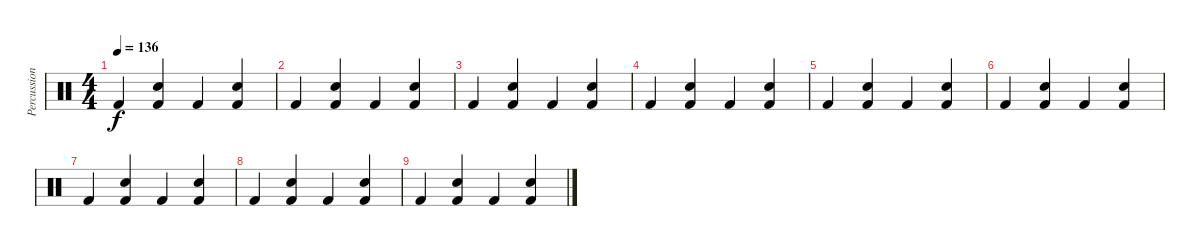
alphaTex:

\track ("Percussion" "Percussion") {instrument percussion}
\staff {score}
\articulation defaults
\ts (4 4)
\tempo 136
\clef neutral
\ks c "Kick (hit) 2".4{dy f}
("Kick (hit) 2" "Snare (hit) 2").4 "Kick (hit) 2".4 ("Kick (hit) 2" "Snare (hit) 2").4 |
"Kick (hit) 2".4 ("Kick (hit) 2" "Snare (hit) 2").4 "Kick (hit) 2".4 ("Kick (hit) 2" "Snare (hit) 2").4 |
"Kick (hit) 2".4 ("Kick (hit) 2" "Snare (hit) 2").4 "Kick (hit) 2".4 ("Kick (hit) 2" "Snare (hit) 2").4 |
"Kick (hit) 2".4 ("Kick (hit) 2" "Snare (hit) 2").4 "Kick (hit) 2".4 ("Kick (hit) 2" "Snare (hit) 2").4 |
"Kick (hit) 2".4 ("Kick (hit) 2" "Snare (hit) 2").4 "Kick (hit) 2".4 ("Kick (hit) 2" "Snare (hit) 2").4 |
"Kick (hit) 2".4 ("Kick (hit) 2" "Snare (hit) 2").4 "Kick (hit) 2".4 ("Kick (hit) 2" "Snare (hit) 2").4 |
"Kick (hit) 2".4 ("Kick (hit) 2" "Snare (hit) 2").4 "Kick (hit) 2".4 ("Kick (hit) 2" "Snare (hit) 2").4 |
"Kick (hit) 2".4 ("Kick (hit) 2" "Snare (hit) 2").4 "Kick (hit) 2".4 ("Kick (hit) 2" "Snare (hit) 2").4 |
"Kick (hit) 2".4 ("Kick (hit) 2" "Snare (hit) 2").4 "Kick (hit) 2".4 ("Kick (hit) 2" "Snare (hit) 2").4
